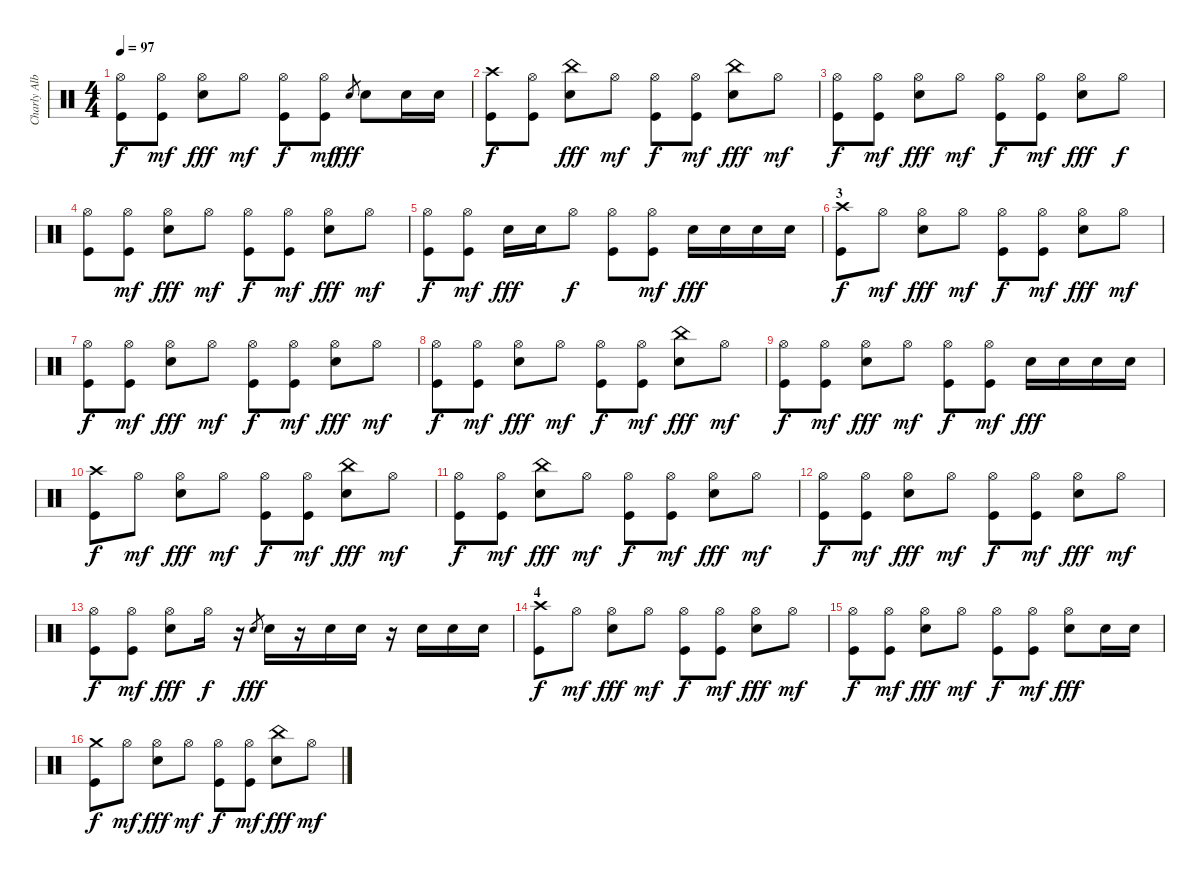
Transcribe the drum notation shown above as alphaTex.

\track ("Charly Alberti" "Charly Alb") {instrument percussion}
\staff {score}
\articulation defaults
\ts (4 4)
\tempo 97
\clef neutral
\ks c
("Kick (hit)" "Hi-Hat (open)").8{dy f} ("Kick (hit)" "Hi-Hat (open)").8{dy mf} ("Snare (hit) 2" "Hi-Hat (open)").8{dy fff} "Hi-Hat (open)".8{dy mf} ("Kick (hit)" "Hi-Hat (open)").8{dy f} ("Kick (hit)" "Hi-Hat (open)").8{dy mf} "Snare (hit) 2".8{gr dy fff} "Snare (hit) 2".8 "Snare (hit) 2".16 "Snare (hit) 2".16 |
("Kick (hit)" "Crash high (hit)").8{dy f} ("Kick (hit)" "Hi-Hat (open)").8 ("Snare (hit) 2" "China (hit)").8{dy fff} "Hi-Hat (open)".8{dy mf} ("Kick (hit)" "Hi-Hat (open)").8{dy f} ("Kick (hit)" "Hi-Hat (open)").8{dy mf} ("Snare (hit) 2" "China (hit)").8{dy fff} "Hi-Hat (open)".8{dy mf} |
("Kick (hit)" "Hi-Hat (open)").8{dy f} ("Kick (hit)" "Hi-Hat (open)").8{dy mf} ("Snare (hit) 2" "Hi-Hat (open)").8{dy fff} "Hi-Hat (open)".8{dy mf} ("Kick (hit)" "Hi-Hat (open)").8{dy f} ("Kick (hit)" "Hi-Hat (open)").8{dy mf} ("Snare (hit) 2" "Hi-Hat (open)").8{dy fff} "Hi-Hat (open)".8{dy f} |
("Kick (hit)" "Hi-Hat (open)").8 ("Kick (hit)" "Hi-Hat (open)").8{dy mf} ("Snare (hit) 2" "Hi-Hat (open)").8{dy fff} "Hi-Hat (open)".8{dy mf} ("Kick (hit)" "Hi-Hat (open)").8{dy f} ("Kick (hit)" "Hi-Hat (open)").8{dy mf} ("Snare (hit) 2" "Hi-Hat (open)").8{dy fff} "Hi-Hat (open)".8{dy mf} |
("Kick (hit)" "Hi-Hat (open)").8{dy f} ("Kick (hit)" "Hi-Hat (open)").8{dy mf} "Snare (hit) 2".16{dy fff} "Snare (hit) 2".16 "Hi-Hat (open)".8{dy f} ("Kick (hit)" "Hi-Hat (open)").8 ("Kick (hit)" "Hi-Hat (open)").8{dy mf} "Snare (hit) 2".16{dy fff} "Snare (hit) 2".16 "Snare (hit) 2".16 "Snare (hit) 2".16 |
\section ("" "3")
("Kick (hit)" "Crash high (hit)").8{dy f} "Hi-Hat (open)".8{dy mf} ("Snare (hit) 2" "Hi-Hat (open)").8{dy fff} "Hi-Hat (open)".8{dy mf} ("Kick (hit)" "Hi-Hat (open)").8{dy f} ("Kick (hit)" "Hi-Hat (open)").8{dy mf} ("Snare (hit) 2" "Hi-Hat (open)").8{dy fff} "Hi-Hat (open)".8{dy mf} |
("Kick (hit)" "Hi-Hat (open)").8{dy f} ("Kick (hit)" "Hi-Hat (open)").8{dy mf} ("Snare (hit) 2" "Hi-Hat (open)").8{dy fff} "Hi-Hat (open)".8{dy mf} ("Kick (hit)" "Hi-Hat (open)").8{dy f} ("Kick (hit)" "Hi-Hat (open)").8{dy mf} ("Snare (hit) 2" "Hi-Hat (open)").8{dy fff} "Hi-Hat (open)".8{dy mf} |
("Kick (hit)" "Hi-Hat (open)").8{dy f} ("Kick (hit)" "Hi-Hat (open)").8{dy mf} ("Snare (hit) 2" "Hi-Hat (open)").8{dy fff} "Hi-Hat (open)".8{dy mf} ("Kick (hit)" "Hi-Hat (open)").8{dy f} ("Kick (hit)" "Hi-Hat (open)").8{dy mf} ("Snare (hit) 2" "China (hit)").8{dy fff} "Hi-Hat (open)".8{dy mf} |
("Kick (hit)" "Hi-Hat (open)").8{dy f} ("Kick (hit)" "Hi-Hat (open)").8{dy mf} ("Snare (hit) 2" "Hi-Hat (open)").8{dy fff} "Hi-Hat (open)".8{dy mf} ("Kick (hit)" "Hi-Hat (open)").8{dy f} ("Kick (hit)" "Hi-Hat (open)").8{dy mf} "Snare (hit) 2".16{dy fff} "Snare (hit) 2".16 "Snare (hit) 2".16 "Snare (hit) 2".16 |
("Kick (hit)" "Crash high (hit)").8{dy f} "Hi-Hat (open)".8{dy mf} ("Snare (hit) 2" "Hi-Hat (open)").8{dy fff} "Hi-Hat (open)".8{dy mf} ("Kick (hit)" "Hi-Hat (open)").8{dy f} ("Kick (hit)" "Hi-Hat (open)").8{dy mf} ("Snare (hit) 2" "China (hit)").8{dy fff} "Hi-Hat (open)".8{dy mf} |
("Kick (hit)" "Hi-Hat (open)").8{dy f} ("Kick (hit)" "Hi-Hat (open)").8{dy mf} ("Snare (hit) 2" "China (hit)").8{dy fff} "Hi-Hat (open)".8{dy mf} ("Kick (hit)" "Hi-Hat (open)").8{dy f} ("Kick (hit)" "Hi-Hat (open)").8{dy mf} ("Snare (hit) 2" "Hi-Hat (open)").8{dy fff} "Hi-Hat (open)".8{dy mf} |
("Kick (hit)" "Hi-Hat (open)").8{dy f} ("Kick (hit)" "Hi-Hat (open)").8{dy mf} ("Snare (hit) 2" "Hi-Hat (open)").8{dy fff} "Hi-Hat (open)".8{dy mf} ("Kick (hit)" "Hi-Hat (open)").8{dy f} ("Kick (hit)" "Hi-Hat (open)").8{dy mf} ("Snare (hit) 2" "Hi-Hat (open)").8{dy fff} "Hi-Hat (open)".8{dy mf} |
("Kick (hit)" "Hi-Hat (open)").8{dy f} ("Kick (hit)" "Hi-Hat (open)").8{dy mf} ("Snare (hit) 2" "Hi-Hat (open)").8{dy fff} "Hi-Hat (open)".16{dy f} r.16 "Snare (hit) 2".8{gr dy fff} "Snare (hit) 2".16 r.16 "Snare (hit) 2".16 "Snare (hit) 2".16 r.16 "Snare (hit) 2".16 "Snare (hit) 2".16 "Snare (hit) 2".16 |
\section ("" "4")
("Kick (hit)" "Crash high (hit)").8{dy f} "Hi-Hat (open)".8{dy mf} ("Snare (hit) 2" "Hi-Hat (open)").8{dy fff} "Hi-Hat (open)".8{dy mf} ("Kick (hit)" "Hi-Hat (open)").8{dy f} ("Kick (hit)" "Hi-Hat (open)").8{dy mf} ("Snare (hit) 2" "Hi-Hat (open)").8{dy fff} "Hi-Hat (open)".8{dy mf} |
("Kick (hit)" "Hi-Hat (open)").8{dy f} ("Kick (hit)" "Hi-Hat (open)").8{dy mf} ("Snare (hit) 2" "Hi-Hat (open)").8{dy fff} "Hi-Hat (open)".8{dy mf} ("Kick (hit)" "Hi-Hat (open)").8{dy f} ("Kick (hit)" "Hi-Hat (open)").8{dy mf} ("Snare (hit) 2" "Hi-Hat (open)").8{dy fff} "Snare (hit) 2".16 "Snare (hit) 2".16 |
("Kick (hit)" "Crash medium (hit)").8{dy f} "Hi-Hat (open)".8{dy mf} ("Snare (hit) 2" "Hi-Hat (open)").8{dy fff} "Hi-Hat (open)".8{dy mf} ("Kick (hit)" "Hi-Hat (open)").8{dy f} ("Kick (hit)" "Hi-Hat (open)").8{dy mf} ("Snare (hit) 2" "China (hit)").8{dy fff} "Hi-Hat (open)".8{dy mf}
